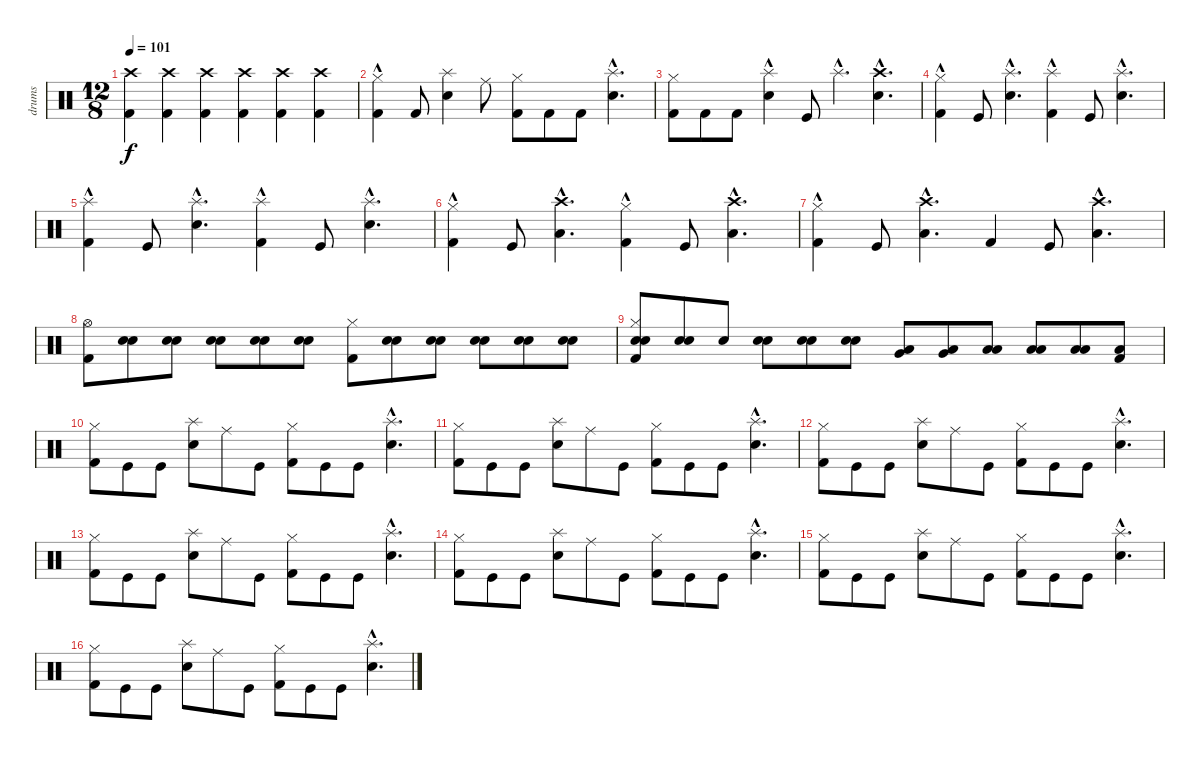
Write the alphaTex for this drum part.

\track ("drums" "drums") {instrument percussion}
\staff {score}
\articulation defaults
\ts (12 8)
\tempo 101
\clef neutral
\ks c
("Crash high (hit)" "Kick (hit) 2").4{dy f} ("Crash high (hit)" "Kick (hit) 2").4 ("Crash high (hit)" "Kick (hit) 2").4 ("Crash high (hit)" "Kick (hit) 2").4 ("Crash high (hit)" "Kick (hit) 2").4 ("Crash high (hit)" "Kick (hit) 2").4 |
("Hi-Hat (closed)"{hac} "Kick (hit) 2").4 "Kick (hit) 2".8 ("Splash (hit)" "Snare (hit) 2").4 "Ride (middle)".8 ("Hi-Hat (closed)" "Kick (hit) 2").8 "Kick (hit) 2".8 "Kick (hit) 2".8 ("Splash (hit)"{hac} "Electric Snare (hit)"{hac}).4{d} |
("Hi-Hat (closed)" "Kick (hit) 2").8 "Kick (hit) 2".8 "Kick (hit) 2".8 ("Splash (hit)"{hac} "Snare (hit) 2").4 "Kick (hit)".8 "Splash (hit)"{hac}.4{d} ("Crash high (hit)"{hac} "Snare (hit) 2"{hac}).4{d} |
("Hi-Hat (closed)"{hac} "Kick (hit) 2").4 "Kick (hit)".8 ("Snare (hit) 2"{hac} "Splash (hit)"{hac}).4{d} ("Kick (hit) 2" "Splash (hit)"{hac}).4 "Kick (hit)".8 ("Snare (hit) 2"{hac} "Splash (hit)"{hac}).4{d} |
("Kick (hit) 2" "Splash (hit)"{hac}).4 "Kick (hit)".8 ("Snare (hit) 2"{hac} "Splash (hit)"{hac}).4{d} ("Kick (hit) 2" "Splash (hit)"{hac}).4 "Kick (hit)".8 ("Snare (hit) 2"{hac} "Splash (hit)"{hac}).4{d} |
("Kick (hit) 2" "Hi-Hat (closed)"{hac}).4 "Kick (hit)".8 ("Crash high (hit)"{hac} "Low Tom (hit)"{hac}).4{d} ("Hi-Hat (closed)"{hac} "Kick (hit) 2").4 "Kick (hit)".8 ("Crash high (hit)"{hac} "Low Tom (hit)"{hac}).4{d} |
("Hi-Hat (closed)"{hac} "Kick (hit) 2").4 "Kick (hit)".8 ("Crash high (hit)"{hac} "Low Tom (hit)"{hac}).4{d} "Kick (hit) 2".4 "Kick (hit)".8 ("Crash high (hit)"{hac} "Low Tom (hit)"{hac}).4{d} |
("Hi-Hat (open)" "Kick (hit) 2").8 ("Electric Snare (hit)" "Electric Snare (hit)").8 ("Electric Snare (hit)" "Electric Snare (hit)").8 ("Electric Snare (hit)" "Electric Snare (hit)").8 ("Electric Snare (hit)" "Electric Snare (hit)").8 ("Electric Snare (hit)" "Electric Snare (hit)").8 ("Hi-Hat (closed)" "Kick (hit) 2").8 ("Electric Snare (hit)" "Snare (hit) 2").8 ("Electric Snare (hit)" "Snare (hit) 2").8 ("Electric Snare (hit)" "Snare (hit) 2").8 ("Electric Snare (hit)" "Snare (hit) 2").8 ("Electric Snare (hit)" "Snare (hit) 2").8 |
("Electric Snare (hit)" "Hi-Hat (closed)" "Snare (hit) 2" "Kick (hit) 2").8 ("Electric Snare (hit)" "Snare (hit) 2").8 "Snare (hit) 2".8 ("Electric Snare (hit)" "Snare (hit) 2").8 ("Electric Snare (hit)" "Snare (hit) 2").8 ("Electric Snare (hit)" "Snare (hit) 2").8 ("Very Low Tom (hit)" "Low Tom (hit)").8 ("Very Low Tom (hit)" "Low Tom (hit)").8 ("Low Floor Tom (hit)" "Low Tom (hit)").8 ("Low Tom (hit)" "Low Floor Tom (hit)").8 ("Low Tom (hit)" "Low Floor Tom (hit)").8 ("Low Tom (hit)" "Kick (hit) 2").8 |
("Hi-Hat (closed)" "Kick (hit) 2").8 "Kick (hit)".8 "Kick (hit)".8 ("Splash (hit)" "Snare (hit) 2").8 "Ride (middle)".8 "Kick (hit)".8 ("Hi-Hat (closed)" "Kick (hit) 2").8 "Kick (hit)".8 "Kick (hit)".8 ("Splash (hit)"{hac} "Snare (hit) 2"{hac}).4{d} |
("Hi-Hat (closed)" "Kick (hit) 2").8 "Kick (hit)".8 "Kick (hit)".8 ("Splash (hit)" "Snare (hit) 2").8 "Ride (middle)".8 "Kick (hit)".8 ("Hi-Hat (closed)" "Kick (hit) 2").8 "Kick (hit)".8 "Kick (hit)".8 ("Splash (hit)"{hac} "Snare (hit) 2"{hac}).4{d} |
("Hi-Hat (closed)" "Kick (hit) 2").8 "Kick (hit)".8 "Kick (hit)".8 ("Splash (hit)" "Snare (hit) 2").8 "Ride (middle)".8 "Kick (hit)".8 ("Hi-Hat (closed)" "Kick (hit) 2").8 "Kick (hit)".8 "Kick (hit)".8 ("Splash (hit)"{hac} "Snare (hit) 2"{hac}).4{d} |
("Hi-Hat (closed)" "Kick (hit) 2").8 "Kick (hit)".8 "Kick (hit)".8 ("Splash (hit)" "Snare (hit) 2").8 "Ride (middle)".8 "Kick (hit)".8 ("Hi-Hat (closed)" "Kick (hit) 2").8 "Kick (hit)".8 "Kick (hit)".8 ("Splash (hit)"{hac} "Snare (hit) 2"{hac}).4{d} |
("Hi-Hat (closed)" "Kick (hit) 2").8 "Kick (hit)".8 "Kick (hit)".8 ("Splash (hit)" "Snare (hit) 2").8 "Ride (middle)".8 "Kick (hit)".8 ("Hi-Hat (closed)" "Kick (hit) 2").8 "Kick (hit)".8 "Kick (hit)".8 ("Splash (hit)"{hac} "Snare (hit) 2"{hac}).4{d} |
("Hi-Hat (closed)" "Kick (hit) 2").8 "Kick (hit)".8 "Kick (hit)".8 ("Splash (hit)" "Snare (hit) 2").8 "Ride (middle)".8 "Kick (hit)".8 ("Hi-Hat (closed)" "Kick (hit) 2").8 "Kick (hit)".8 "Kick (hit)".8 ("Splash (hit)"{hac} "Snare (hit) 2"{hac}).4{d} |
("Hi-Hat (closed)" "Kick (hit) 2").8 "Kick (hit)".8 "Kick (hit)".8 ("Splash (hit)" "Snare (hit) 2").8 "Ride (middle)".8 "Kick (hit)".8 ("Hi-Hat (closed)" "Kick (hit) 2").8 "Kick (hit)".8 "Kick (hit)".8 ("Splash (hit)"{hac} "Snare (hit) 2"{hac}).4{d}
